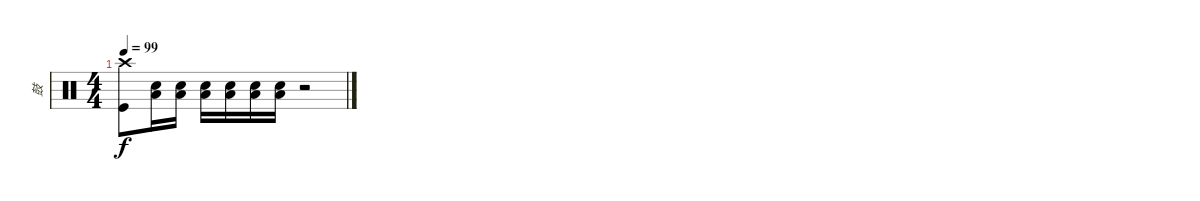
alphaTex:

\track ("鼓" "鼓") {instrument percussion}
\staff {score}
\articulation defaults
\ts (4 4)
\tempo 99
\clef neutral
\ks c
("Crash high (hit)" "Kick (hit)").8{dy f} ("Snare (hit) 2" "Low Floor Tom (hit)").16 ("Snare (hit) 2" "Low Floor Tom (hit)").16 ("Snare (hit) 2" "Low Floor Tom (hit)").16 ("Snare (hit) 2" "Low Floor Tom (hit)").16 ("Snare (hit) 2" "Low Floor Tom (hit)").16 ("Snare (hit) 2" "Low Floor Tom (hit)").16 r.2
